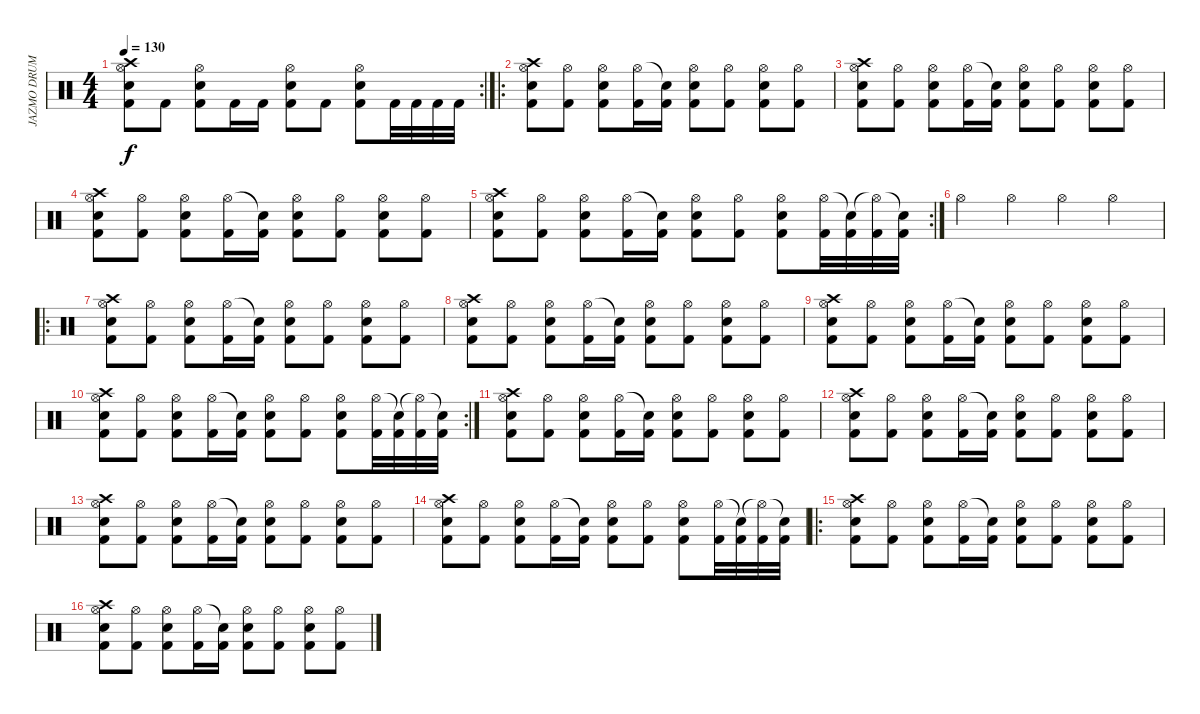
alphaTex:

\track ("JAZMO DRUMS" "JAZMO DRUM") {instrument percussion}
\staff {score}
\articulation defaults
\rc 2
\ts (4 4)
\tempo 130
\clef neutral
\ks c
("Crash high (hit)" "Hi-Hat (open)" "Snare (hit) 2" "Kick (hit) 2").8{dy f} "Kick (hit) 2".8 ("Hi-Hat (open)" "Snare (hit) 2" "Kick (hit) 2").8 "Kick (hit) 2".16 "Kick (hit) 2".16 ("Hi-Hat (open)" "Snare (hit) 2" "Kick (hit) 2").8 "Kick (hit) 2".8 ("Hi-Hat (open)" "Snare (hit) 2" "Kick (hit) 2").8 "Kick (hit) 2".32 "Kick (hit) 2".32 "Kick (hit) 2".32 "Kick (hit) 2".32 |
\ro
("Crash high (hit)" "Hi-Hat (open)" "Snare (hit) 2" "Kick (hit) 2").8 ("Hi-Hat (open)" "Kick (hit) 2").8 ("Hi-Hat (open)" "Snare (hit) 2" "Kick (hit) 2").8 ("Hi-Hat (open)" "Kick (hit) 2").16 ("Snare (hit)"{t} "Kick (hit) 2").16 ("Hi-Hat (open)" "Snare (hit) 2" "Kick (hit) 2").8 ("Hi-Hat (open)" "Kick (hit) 2").8 ("Hi-Hat (open)" "Snare (hit) 2" "Kick (hit) 2").8 ("Hi-Hat (open)" "Kick (hit) 2").8 |
("Crash high (hit)" "Hi-Hat (open)" "Snare (hit) 2" "Kick (hit) 2").8 ("Hi-Hat (open)" "Kick (hit) 2").8 ("Hi-Hat (open)" "Snare (hit) 2" "Kick (hit) 2").8 ("Hi-Hat (open)" "Kick (hit) 2").16 ("Snare (hit)"{t} "Kick (hit) 2").16 ("Hi-Hat (open)" "Snare (hit) 2" "Kick (hit) 2").8 ("Hi-Hat (open)" "Kick (hit) 2").8 ("Hi-Hat (open)" "Snare (hit) 2" "Kick (hit) 2").8 ("Hi-Hat (open)" "Kick (hit) 2").8 |
("Crash high (hit)" "Hi-Hat (open)" "Snare (hit) 2" "Kick (hit) 2").8 ("Hi-Hat (open)" "Kick (hit) 2").8 ("Hi-Hat (open)" "Snare (hit) 2" "Kick (hit) 2").8 ("Hi-Hat (open)" "Kick (hit) 2").16 ("Snare (hit)"{t} "Kick (hit) 2").16 ("Hi-Hat (open)" "Snare (hit) 2" "Kick (hit) 2").8 ("Hi-Hat (open)" "Kick (hit) 2").8 ("Hi-Hat (open)" "Snare (hit) 2" "Kick (hit) 2").8 ("Hi-Hat (open)" "Kick (hit) 2").8 |
\rc 2
("Crash high (hit)" "Hi-Hat (open)" "Snare (hit) 2" "Kick (hit) 2").8 ("Hi-Hat (open)" "Kick (hit) 2").8 ("Hi-Hat (open)" "Snare (hit) 2" "Kick (hit) 2").8 ("Hi-Hat (open)" "Kick (hit) 2").16 ("Snare (hit)"{t} "Kick (hit) 2").16 ("Hi-Hat (open)" "Snare (hit) 2" "Kick (hit) 2").8 ("Hi-Hat (open)" "Kick (hit) 2").8 ("Hi-Hat (open)" "Snare (hit) 2" "Kick (hit) 2").8 ("Hi-Hat (open)" "Kick (hit) 2").32 ("Snare (hit)"{t} "Kick (hit) 2").32 ("Hi-Hat (open)"{t} "Kick (hit) 2").32 ("Snare (hit)"{t} "Kick (hit) 2").32 |
"Hi-Hat (open)".4 "Hi-Hat (open)".4 "Hi-Hat (open)".4 "Hi-Hat (open)".4 |
\ro
("Crash high (hit)" "Hi-Hat (open)" "Snare (hit) 2" "Kick (hit) 2").8 ("Hi-Hat (open)" "Kick (hit) 2").8 ("Hi-Hat (open)" "Snare (hit) 2" "Kick (hit) 2").8 ("Hi-Hat (open)" "Kick (hit) 2").16 ("Snare (hit)"{t} "Kick (hit) 2").16 ("Hi-Hat (open)" "Snare (hit) 2" "Kick (hit) 2").8 ("Hi-Hat (open)" "Kick (hit) 2").8 ("Hi-Hat (open)" "Snare (hit) 2" "Kick (hit) 2").8 ("Hi-Hat (open)" "Kick (hit) 2").8 |
("Crash high (hit)" "Hi-Hat (open)" "Snare (hit) 2" "Kick (hit) 2").8 ("Hi-Hat (open)" "Kick (hit) 2").8 ("Hi-Hat (open)" "Snare (hit) 2" "Kick (hit) 2").8 ("Hi-Hat (open)" "Kick (hit) 2").16 ("Snare (hit)"{t} "Kick (hit) 2").16 ("Hi-Hat (open)" "Snare (hit) 2" "Kick (hit) 2").8 ("Hi-Hat (open)" "Kick (hit) 2").8 ("Hi-Hat (open)" "Snare (hit) 2" "Kick (hit) 2").8 ("Hi-Hat (open)" "Kick (hit) 2").8 |
("Crash high (hit)" "Hi-Hat (open)" "Snare (hit) 2" "Kick (hit) 2").8 ("Hi-Hat (open)" "Kick (hit) 2").8 ("Hi-Hat (open)" "Snare (hit) 2" "Kick (hit) 2").8 ("Hi-Hat (open)" "Kick (hit) 2").16 ("Snare (hit)"{t} "Kick (hit) 2").16 ("Hi-Hat (open)" "Snare (hit) 2" "Kick (hit) 2").8 ("Hi-Hat (open)" "Kick (hit) 2").8 ("Hi-Hat (open)" "Snare (hit) 2" "Kick (hit) 2").8 ("Hi-Hat (open)" "Kick (hit) 2").8 |
\rc 2
("Crash high (hit)" "Hi-Hat (open)" "Snare (hit) 2" "Kick (hit) 2").8 ("Hi-Hat (open)" "Kick (hit) 2").8 ("Hi-Hat (open)" "Snare (hit) 2" "Kick (hit) 2").8 ("Hi-Hat (open)" "Kick (hit) 2").16 ("Snare (hit)"{t} "Kick (hit) 2").16 ("Hi-Hat (open)" "Snare (hit) 2" "Kick (hit) 2").8 ("Hi-Hat (open)" "Kick (hit) 2").8 ("Hi-Hat (open)" "Snare (hit) 2" "Kick (hit) 2").8 ("Hi-Hat (open)" "Kick (hit) 2").32 ("Snare (hit)"{t} "Kick (hit) 2").32 ("Hi-Hat (open)"{t} "Kick (hit) 2").32 ("Snare (hit)"{t} "Kick (hit) 2").32 |
("Crash high (hit)" "Hi-Hat (open)" "Snare (hit) 2" "Kick (hit) 2").8 ("Hi-Hat (open)" "Kick (hit) 2").8 ("Hi-Hat (open)" "Snare (hit) 2" "Kick (hit) 2").8 ("Hi-Hat (open)" "Kick (hit) 2").16 ("Snare (hit)"{t} "Kick (hit) 2").16 ("Hi-Hat (open)" "Snare (hit) 2" "Kick (hit) 2").8 ("Hi-Hat (open)" "Kick (hit) 2").8 ("Hi-Hat (open)" "Snare (hit) 2" "Kick (hit) 2").8 ("Hi-Hat (open)" "Kick (hit) 2").8 |
("Crash high (hit)" "Hi-Hat (open)" "Snare (hit) 2" "Kick (hit) 2").8 ("Hi-Hat (open)" "Kick (hit) 2").8 ("Hi-Hat (open)" "Snare (hit) 2" "Kick (hit) 2").8 ("Hi-Hat (open)" "Kick (hit) 2").16 ("Snare (hit)"{t} "Kick (hit) 2").16 ("Hi-Hat (open)" "Snare (hit) 2" "Kick (hit) 2").8 ("Hi-Hat (open)" "Kick (hit) 2").8 ("Hi-Hat (open)" "Snare (hit) 2" "Kick (hit) 2").8 ("Hi-Hat (open)" "Kick (hit) 2").8 |
("Crash high (hit)" "Hi-Hat (open)" "Snare (hit) 2" "Kick (hit) 2").8 ("Hi-Hat (open)" "Kick (hit) 2").8 ("Hi-Hat (open)" "Snare (hit) 2" "Kick (hit) 2").8 ("Hi-Hat (open)" "Kick (hit) 2").16 ("Snare (hit)"{t} "Kick (hit) 2").16 ("Hi-Hat (open)" "Snare (hit) 2" "Kick (hit) 2").8 ("Hi-Hat (open)" "Kick (hit) 2").8 ("Hi-Hat (open)" "Snare (hit) 2" "Kick (hit) 2").8 ("Hi-Hat (open)" "Kick (hit) 2").8 |
("Crash high (hit)" "Hi-Hat (open)" "Snare (hit) 2" "Kick (hit) 2").8 ("Hi-Hat (open)" "Kick (hit) 2").8 ("Hi-Hat (open)" "Snare (hit) 2" "Kick (hit) 2").8 ("Hi-Hat (open)" "Kick (hit) 2").16 ("Snare (hit)"{t} "Kick (hit) 2").16 ("Hi-Hat (open)" "Snare (hit) 2" "Kick (hit) 2").8 ("Hi-Hat (open)" "Kick (hit) 2").8 ("Hi-Hat (open)" "Snare (hit) 2" "Kick (hit) 2").8 ("Hi-Hat (open)" "Kick (hit) 2").32 ("Snare (hit)"{t} "Kick (hit) 2").32 ("Hi-Hat (open)"{t} "Kick (hit) 2").32 ("Snare (hit)"{t} "Kick (hit) 2").32 |
\ro
("Crash high (hit)" "Hi-Hat (open)" "Snare (hit) 2" "Kick (hit) 2").8 ("Hi-Hat (open)" "Kick (hit) 2").8 ("Hi-Hat (open)" "Snare (hit) 2" "Kick (hit) 2").8 ("Hi-Hat (open)" "Kick (hit) 2").16 ("Snare (hit)"{t} "Kick (hit) 2").16 ("Hi-Hat (open)" "Snare (hit) 2" "Kick (hit) 2").8 ("Hi-Hat (open)" "Kick (hit) 2").8 ("Hi-Hat (open)" "Snare (hit) 2" "Kick (hit) 2").8 ("Hi-Hat (open)" "Kick (hit) 2").8 |
("Crash high (hit)" "Hi-Hat (open)" "Snare (hit) 2" "Kick (hit) 2").8 ("Hi-Hat (open)" "Kick (hit) 2").8 ("Hi-Hat (open)" "Snare (hit) 2" "Kick (hit) 2").8 ("Hi-Hat (open)" "Kick (hit) 2").16 ("Snare (hit)"{t} "Kick (hit) 2").16 ("Hi-Hat (open)" "Snare (hit) 2" "Kick (hit) 2").8 ("Hi-Hat (open)" "Kick (hit) 2").8 ("Hi-Hat (open)" "Snare (hit) 2" "Kick (hit) 2").8 ("Hi-Hat (open)" "Kick (hit) 2").8
